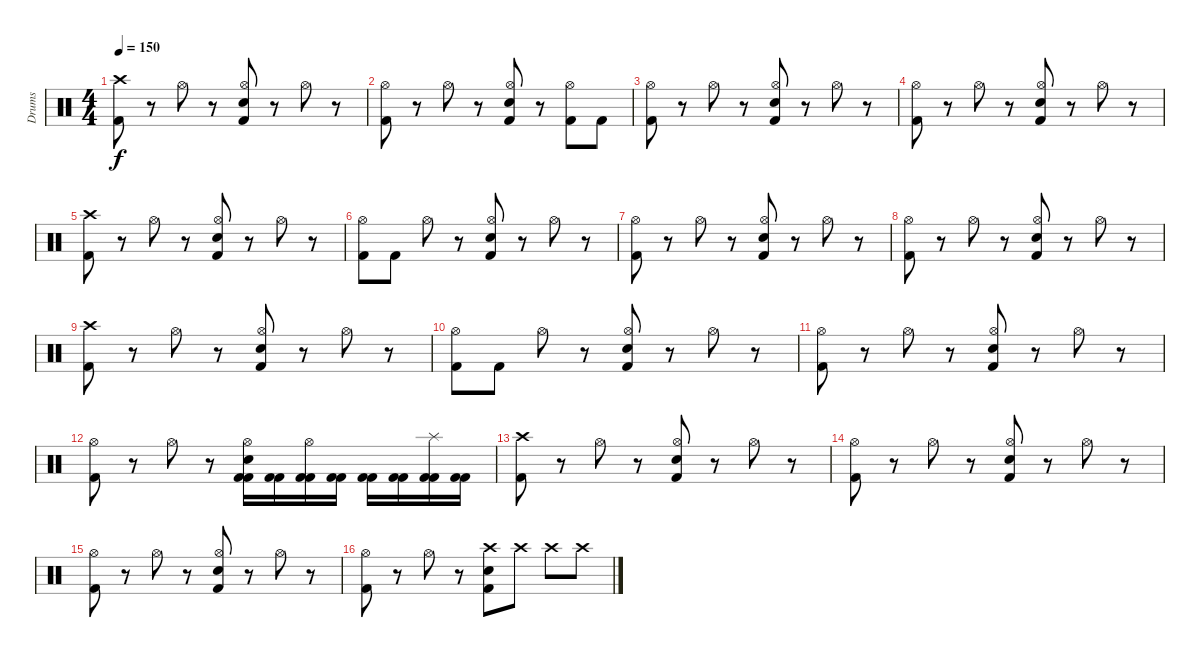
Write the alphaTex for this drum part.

\track ("Drums" "Drums") {instrument percussion}
\staff {score}
\articulation defaults
\ts (4 4)
\tempo 150
\clef neutral
\ks c
("Crash high (hit)" "Kick (hit) 2").8{dy f} r.8 "Hi-Hat (open)".8 r.8 ("Snare (hit) 2" "Hi-Hat (open)" "Kick (hit) 2").8 r.8 "Hi-Hat (open)".8 r.8 |
("Hi-Hat (open)" "Kick (hit) 2").8 r.8 "Hi-Hat (open)".8 r.8 ("Snare (hit) 2" "Hi-Hat (open)" "Kick (hit) 2").8 r.8 ("Hi-Hat (open)" "Kick (hit) 2").8 "Kick (hit) 2".8 |
("Hi-Hat (open)" "Kick (hit) 2").8 r.8 "Hi-Hat (open)".8 r.8 ("Snare (hit) 2" "Hi-Hat (open)" "Kick (hit) 2").8 r.8 "Hi-Hat (open)".8 r.8 |
("Hi-Hat (open)" "Kick (hit) 2").8 r.8 "Hi-Hat (open)".8 r.8 ("Snare (hit) 2" "Hi-Hat (open)" "Kick (hit) 2").8 r.8 "Hi-Hat (open)".8 r.8 |
("Crash high (hit)" "Kick (hit) 2").8 r.8 "Hi-Hat (open)".8 r.8 ("Snare (hit) 2" "Hi-Hat (open)" "Kick (hit) 2").8 r.8 "Hi-Hat (open)".8 r.8 |
("Hi-Hat (open)" "Kick (hit) 2").8 "Kick (hit) 2".8 "Hi-Hat (open)".8 r.8 ("Snare (hit) 2" "Hi-Hat (open)" "Kick (hit) 2").8 r.8 "Hi-Hat (open)".8 r.8 |
("Hi-Hat (open)" "Kick (hit) 2").8 r.8 "Hi-Hat (open)".8 r.8 ("Snare (hit) 2" "Hi-Hat (open)" "Kick (hit) 2").8 r.8 "Hi-Hat (open)".8 r.8 |
("Hi-Hat (open)" "Kick (hit) 2").8 r.8 "Hi-Hat (open)".8 r.8 ("Snare (hit) 2" "Hi-Hat (open)" "Kick (hit) 2").8 r.8 "Hi-Hat (open)".8 r.8 |
("Crash high (hit)" "Kick (hit) 2").8 r.8 "Hi-Hat (open)".8 r.8 ("Snare (hit) 2" "Hi-Hat (open)" "Kick (hit) 2").8 r.8 "Hi-Hat (open)".8 r.8 |
("Hi-Hat (open)" "Kick (hit) 2").8 "Kick (hit) 2".8 "Hi-Hat (open)".8 r.8 ("Snare (hit) 2" "Hi-Hat (open)" "Kick (hit) 2").8 r.8 "Hi-Hat (open)".8 r.8 |
("Hi-Hat (open)" "Kick (hit) 2").8 r.8 "Hi-Hat (open)".8 r.8 ("Snare (hit) 2" "Hi-Hat (open)" "Kick (hit) 2").8 r.8 "Hi-Hat (open)".8 r.8 |
("Hi-Hat (open)" "Kick (hit) 2").8 r.8 "Hi-Hat (open)".8 r.8 ("Snare (hit) 2" "Hi-Hat (open)" "Kick (hit) 2" "Kick (hit) 2").16 ("Kick (hit) 2" "Kick (hit) 2").16 ("Hi-Hat (open)" "Kick (hit) 2" "Kick (hit) 2").16 ("Kick (hit) 2" "Kick (hit) 2").16 ("Kick (hit) 2" "Kick (hit) 2").16 ("Kick (hit) 2" "Kick (hit) 2").16 ("Splash (hit)" "Kick (hit) 2" "Kick (hit) 2").16 ("Kick (hit) 2" "Kick (hit) 2").16 |
("Crash high (hit)" "Kick (hit) 2").8 r.8 "Hi-Hat (open)".8 r.8 ("Snare (hit) 2" "Hi-Hat (open)" "Kick (hit) 2").8 r.8 "Hi-Hat (open)".8 r.8 |
("Hi-Hat (open)" "Kick (hit) 2").8 r.8 "Hi-Hat (open)".8 r.8 ("Snare (hit) 2" "Hi-Hat (open)" "Kick (hit) 2").8 r.8 "Hi-Hat (open)".8 r.8 |
("Hi-Hat (open)" "Kick (hit) 2").8 r.8 "Hi-Hat (open)".8 r.8 ("Snare (hit) 2" "Hi-Hat (open)" "Kick (hit) 2").8 r.8 "Hi-Hat (open)".8 r.8 |
("Hi-Hat (open)" "Kick (hit) 2").8 r.8 "Hi-Hat (open)".8 r.8 ("Snare (hit) 2" "Crash high (hit)" "Kick (hit) 2").8 "Crash high (hit)".8 "Crash high (hit)".8 "Crash high (hit)".8
